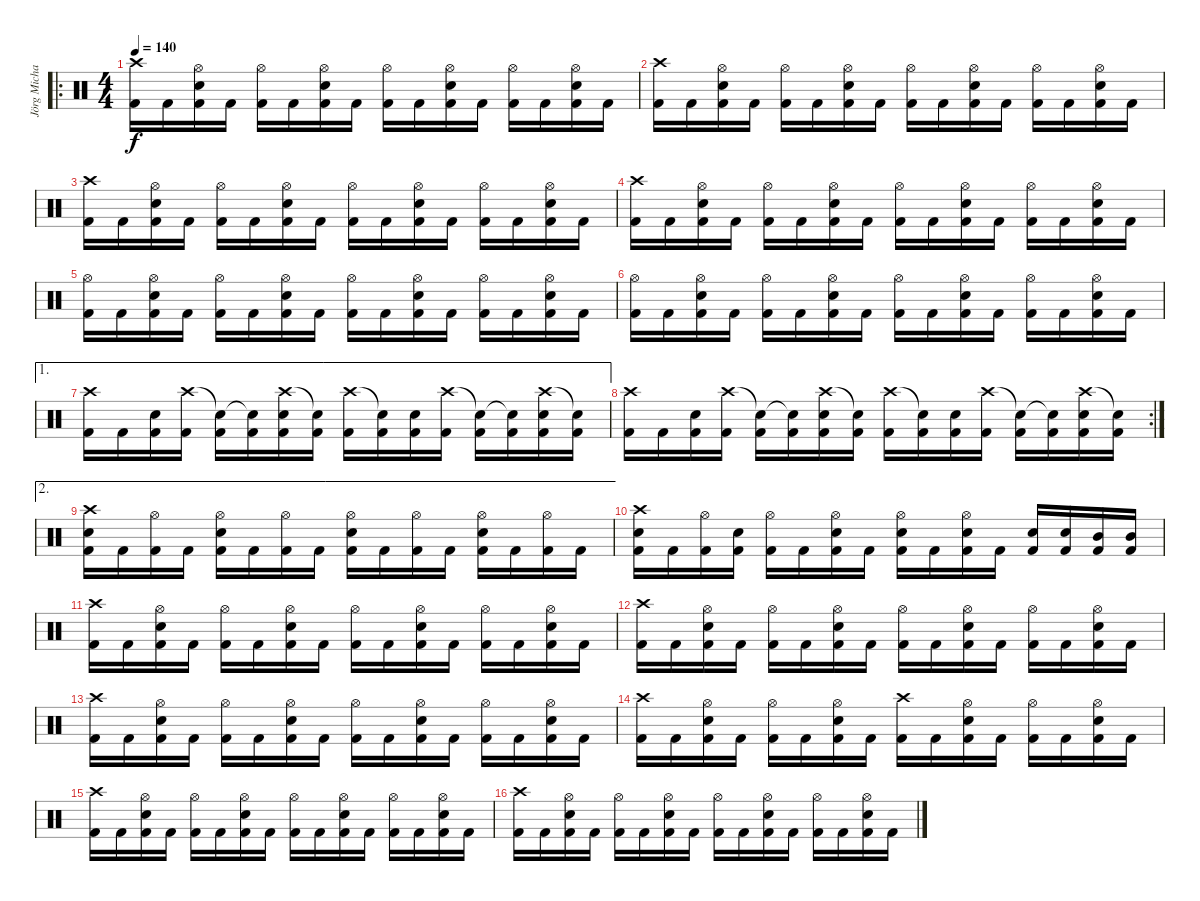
\track ("Jörg Michael" "Jörg Micha") {instrument percussion}
\staff {score}
\articulation defaults
\ro
\ts (4 4)
\tempo 140
\clef neutral
\ks c
("Crash high (hit)" "Kick (hit) 2").16{dy f} "Kick (hit) 2".16 ("Electric Snare (hit)" "Kick (hit) 2" "Hi-Hat (open)").16 "Kick (hit) 2".16 ("Kick (hit) 2" "Hi-Hat (open)").16 "Kick (hit) 2".16 ("Electric Snare (hit)" "Kick (hit) 2" "Hi-Hat (open)").16 "Kick (hit) 2".16 ("Kick (hit) 2" "Hi-Hat (open)").16 "Kick (hit) 2".16 ("Electric Snare (hit)" "Kick (hit) 2" "Hi-Hat (open)").16 "Kick (hit) 2".16 ("Kick (hit) 2" "Hi-Hat (open)").16 "Kick (hit) 2".16 ("Electric Snare (hit)" "Kick (hit) 2" "Hi-Hat (open)").16 "Kick (hit) 2".16 |
("Crash high (hit)" "Kick (hit) 2").16 "Kick (hit) 2".16 ("Electric Snare (hit)" "Kick (hit) 2" "Hi-Hat (open)").16 "Kick (hit) 2".16 ("Kick (hit) 2" "Hi-Hat (open)").16 "Kick (hit) 2".16 ("Electric Snare (hit)" "Kick (hit) 2" "Hi-Hat (open)").16 "Kick (hit) 2".16 ("Kick (hit) 2" "Hi-Hat (open)").16 "Kick (hit) 2".16 ("Electric Snare (hit)" "Kick (hit) 2" "Hi-Hat (open)").16 "Kick (hit) 2".16 ("Kick (hit) 2" "Hi-Hat (open)").16 "Kick (hit) 2".16 ("Electric Snare (hit)" "Kick (hit) 2" "Hi-Hat (open)").16 "Kick (hit) 2".16 |
("Crash high (hit)" "Kick (hit) 2").16 "Kick (hit) 2".16 ("Electric Snare (hit)" "Kick (hit) 2" "Hi-Hat (open)").16 "Kick (hit) 2".16 ("Kick (hit) 2" "Hi-Hat (open)").16 "Kick (hit) 2".16 ("Electric Snare (hit)" "Kick (hit) 2" "Hi-Hat (open)").16 "Kick (hit) 2".16 ("Kick (hit) 2" "Hi-Hat (open)").16 "Kick (hit) 2".16 ("Electric Snare (hit)" "Kick (hit) 2" "Hi-Hat (open)").16 "Kick (hit) 2".16 ("Kick (hit) 2" "Hi-Hat (open)").16 "Kick (hit) 2".16 ("Electric Snare (hit)" "Kick (hit) 2" "Hi-Hat (open)").16 "Kick (hit) 2".16 |
("Crash high (hit)" "Kick (hit) 2").16 "Kick (hit) 2".16 ("Electric Snare (hit)" "Kick (hit) 2" "Hi-Hat (open)").16 "Kick (hit) 2".16 ("Kick (hit) 2" "Hi-Hat (open)").16 "Kick (hit) 2".16 ("Electric Snare (hit)" "Kick (hit) 2" "Hi-Hat (open)").16 "Kick (hit) 2".16 ("Kick (hit) 2" "Hi-Hat (open)").16 "Kick (hit) 2".16 ("Electric Snare (hit)" "Kick (hit) 2" "Hi-Hat (open)").16 "Kick (hit) 2".16 ("Kick (hit) 2" "Hi-Hat (open)").16 "Kick (hit) 2".16 ("Electric Snare (hit)" "Kick (hit) 2" "Hi-Hat (open)").16 "Kick (hit) 2".16 |
("Hi-Hat (open)" "Kick (hit) 2").16 "Kick (hit) 2".16 ("Electric Snare (hit)" "Kick (hit) 2" "Hi-Hat (open)").16 "Kick (hit) 2".16 ("Kick (hit) 2" "Hi-Hat (open)").16 "Kick (hit) 2".16 ("Electric Snare (hit)" "Kick (hit) 2" "Hi-Hat (open)").16 "Kick (hit) 2".16 ("Kick (hit) 2" "Hi-Hat (open)").16 "Kick (hit) 2".16 ("Electric Snare (hit)" "Kick (hit) 2" "Hi-Hat (open)").16 "Kick (hit) 2".16 ("Kick (hit) 2" "Hi-Hat (open)").16 "Kick (hit) 2".16 ("Electric Snare (hit)" "Kick (hit) 2" "Hi-Hat (open)").16 "Kick (hit) 2".16 |
("Hi-Hat (open)" "Kick (hit) 2").16 "Kick (hit) 2".16 ("Electric Snare (hit)" "Kick (hit) 2" "Hi-Hat (open)").16 "Kick (hit) 2".16 ("Kick (hit) 2" "Hi-Hat (open)").16 "Kick (hit) 2".16 ("Electric Snare (hit)" "Kick (hit) 2" "Hi-Hat (open)").16 "Kick (hit) 2".16 ("Kick (hit) 2" "Hi-Hat (open)").16 "Kick (hit) 2".16 ("Electric Snare (hit)" "Kick (hit) 2" "Hi-Hat (open)").16 "Kick (hit) 2".16 ("Kick (hit) 2" "Hi-Hat (open)").16 "Kick (hit) 2".16 ("Electric Snare (hit)" "Kick (hit) 2" "Hi-Hat (open)").16 "Kick (hit) 2".16 |
\ae 1
("Crash high (hit)" "Kick (hit) 2").16 "Kick (hit) 2".16 ("Electric Snare (hit)" "Kick (hit) 2").16 ("Crash high (hit)" "Kick (hit) 2").16 ("Snare (hit)"{t} "Kick (hit) 2").16 ("Snare (hit)"{t} "Kick (hit) 2").16 ("Crash high (hit)" "Kick (hit) 2" "Electric Snare (hit)").16 ("Snare (hit)"{t} "Kick (hit) 2").16 ("Crash high (hit)" "Kick (hit) 2").16 ("Snare (hit)"{t} "Kick (hit) 2").16 ("Electric Snare (hit)" "Kick (hit) 2").16 ("Crash high (hit)" "Kick (hit) 2").16 ("Snare (hit)"{t} "Kick (hit) 2").16 ("Snare (hit)"{t} "Kick (hit) 2").16 ("Crash high (hit)" "Kick (hit) 2" "Electric Snare (hit)").16 ("Snare (hit)"{t} "Kick (hit) 2").16 |
\rc 2
("Crash high (hit)" "Kick (hit) 2").16 "Kick (hit) 2".16 ("Electric Snare (hit)" "Kick (hit) 2").16 ("Crash high (hit)" "Kick (hit) 2").16 ("Snare (hit)"{t} "Kick (hit) 2").16 ("Snare (hit)"{t} "Kick (hit) 2").16 ("Crash high (hit)" "Kick (hit) 2" "Electric Snare (hit)").16 ("Snare (hit)"{t} "Kick (hit) 2").16 ("Crash high (hit)" "Kick (hit) 2").16 ("Snare (hit)"{t} "Kick (hit) 2").16 ("Electric Snare (hit)" "Kick (hit) 2").16 ("Crash high (hit)" "Kick (hit) 2").16 ("Snare (hit)"{t} "Kick (hit) 2").16 ("Snare (hit)"{t} "Kick (hit) 2").16 ("Crash high (hit)" "Kick (hit) 2" "Electric Snare (hit)").16 ("Snare (hit)"{t} "Kick (hit) 2").16 |
\ae 2
("Crash high (hit)" "Electric Snare (hit)" "Kick (hit) 2").16 "Kick (hit) 2".16 ("Hi-Hat (open)" "Kick (hit) 2").16 "Kick (hit) 2".16 ("Hi-Hat (open)" "Electric Snare (hit)" "Kick (hit) 2").16 "Kick (hit) 2".16 ("Hi-Hat (open)" "Kick (hit) 2").16 "Kick (hit) 2".16 ("Hi-Hat (open)" "Electric Snare (hit)" "Kick (hit) 2").16 "Kick (hit) 2".16 ("Hi-Hat (open)" "Kick (hit) 2").16 "Kick (hit) 2".16 ("Hi-Hat (open)" "Electric Snare (hit)" "Kick (hit) 2").16 "Kick (hit) 2".16 ("Hi-Hat (open)" "Kick (hit) 2").16 "Kick (hit) 2".16 |
("Crash high (hit)" "Electric Snare (hit)" "Kick (hit) 2").16 "Kick (hit) 2".16 ("Hi-Hat (open)" "Kick (hit) 2").16 ("Electric Snare (hit)" "Kick (hit) 2").16 ("Hi-Hat (open)" "Kick (hit) 2").16 "Kick (hit) 2".16 ("Hi-Hat (open)" "Electric Snare (hit)" "Kick (hit) 2").16 "Kick (hit) 2".16 ("Hi-Hat (open)" "Electric Snare (hit)" "Kick (hit) 2").16 "Kick (hit) 2".16 ("Hi-Hat (open)" "Electric Snare (hit)" "Kick (hit) 2").16 "Kick (hit) 2".16 ("Electric Snare (hit)" "Kick (hit) 2").16 ("Electric Snare (hit)" "Kick (hit) 2").16 ("Mid Tom (hit)" "Kick (hit) 2").16 ("Mid Tom (hit)" "Kick (hit) 2").16 |
("Crash high (hit)" "Kick (hit) 2").16 "Kick (hit) 2".16 ("Electric Snare (hit)" "Kick (hit) 2" "Hi-Hat (open)").16 "Kick (hit) 2".16 ("Kick (hit) 2" "Hi-Hat (open)").16 "Kick (hit) 2".16 ("Electric Snare (hit)" "Kick (hit) 2" "Hi-Hat (open)").16 "Kick (hit) 2".16 ("Kick (hit) 2" "Hi-Hat (open)").16 "Kick (hit) 2".16 ("Electric Snare (hit)" "Kick (hit) 2" "Hi-Hat (open)").16 "Kick (hit) 2".16 ("Kick (hit) 2" "Hi-Hat (open)").16 "Kick (hit) 2".16 ("Electric Snare (hit)" "Kick (hit) 2" "Hi-Hat (open)").16 "Kick (hit) 2".16 |
("Crash high (hit)" "Kick (hit) 2").16 "Kick (hit) 2".16 ("Electric Snare (hit)" "Kick (hit) 2" "Hi-Hat (open)").16 "Kick (hit) 2".16 ("Kick (hit) 2" "Hi-Hat (open)").16 "Kick (hit) 2".16 ("Electric Snare (hit)" "Kick (hit) 2" "Hi-Hat (open)").16 "Kick (hit) 2".16 ("Kick (hit) 2" "Hi-Hat (open)").16 "Kick (hit) 2".16 ("Electric Snare (hit)" "Kick (hit) 2" "Hi-Hat (open)").16 "Kick (hit) 2".16 ("Kick (hit) 2" "Hi-Hat (open)").16 "Kick (hit) 2".16 ("Electric Snare (hit)" "Kick (hit) 2" "Hi-Hat (open)").16 "Kick (hit) 2".16 |
("Crash high (hit)" "Kick (hit) 2").16 "Kick (hit) 2".16 ("Electric Snare (hit)" "Kick (hit) 2" "Hi-Hat (open)").16 "Kick (hit) 2".16 ("Kick (hit) 2" "Hi-Hat (open)").16 "Kick (hit) 2".16 ("Electric Snare (hit)" "Kick (hit) 2" "Hi-Hat (open)").16 "Kick (hit) 2".16 ("Kick (hit) 2" "Hi-Hat (open)").16 "Kick (hit) 2".16 ("Electric Snare (hit)" "Kick (hit) 2" "Hi-Hat (open)").16 "Kick (hit) 2".16 ("Kick (hit) 2" "Hi-Hat (open)").16 "Kick (hit) 2".16 ("Electric Snare (hit)" "Kick (hit) 2" "Hi-Hat (open)").16 "Kick (hit) 2".16 |
("Crash high (hit)" "Kick (hit) 2").16 "Kick (hit) 2".16 ("Electric Snare (hit)" "Kick (hit) 2" "Hi-Hat (open)").16 "Kick (hit) 2".16 ("Kick (hit) 2" "Hi-Hat (open)").16 "Kick (hit) 2".16 ("Electric Snare (hit)" "Kick (hit) 2" "Hi-Hat (open)").16 "Kick (hit) 2".16 ("Kick (hit) 2" "Crash high (hit)").16 "Kick (hit) 2".16 ("Electric Snare (hit)" "Kick (hit) 2" "Hi-Hat (open)").16 "Kick (hit) 2".16 ("Kick (hit) 2" "Hi-Hat (open)").16 "Kick (hit) 2".16 ("Electric Snare (hit)" "Kick (hit) 2" "Hi-Hat (open)").16 "Kick (hit) 2".16 |
("Crash high (hit)" "Kick (hit) 2").16 "Kick (hit) 2".16 ("Electric Snare (hit)" "Kick (hit) 2" "Hi-Hat (open)").16 "Kick (hit) 2".16 ("Kick (hit) 2" "Hi-Hat (open)").16 "Kick (hit) 2".16 ("Electric Snare (hit)" "Kick (hit) 2" "Hi-Hat (open)").16 "Kick (hit) 2".16 ("Kick (hit) 2" "Hi-Hat (open)").16 "Kick (hit) 2".16 ("Electric Snare (hit)" "Kick (hit) 2" "Hi-Hat (open)").16 "Kick (hit) 2".16 ("Kick (hit) 2" "Hi-Hat (open)").16 "Kick (hit) 2".16 ("Electric Snare (hit)" "Kick (hit) 2" "Hi-Hat (open)").16 "Kick (hit) 2".16 |
("Crash high (hit)" "Kick (hit) 2").16 "Kick (hit) 2".16 ("Electric Snare (hit)" "Kick (hit) 2" "Hi-Hat (open)").16 "Kick (hit) 2".16 ("Kick (hit) 2" "Hi-Hat (open)").16 "Kick (hit) 2".16 ("Electric Snare (hit)" "Kick (hit) 2" "Hi-Hat (open)").16 "Kick (hit) 2".16 ("Kick (hit) 2" "Hi-Hat (open)").16 "Kick (hit) 2".16 ("Electric Snare (hit)" "Kick (hit) 2" "Hi-Hat (open)").16 "Kick (hit) 2".16 ("Kick (hit) 2" "Hi-Hat (open)").16 "Kick (hit) 2".16 ("Electric Snare (hit)" "Kick (hit) 2" "Hi-Hat (open)").16 "Kick (hit) 2".16
